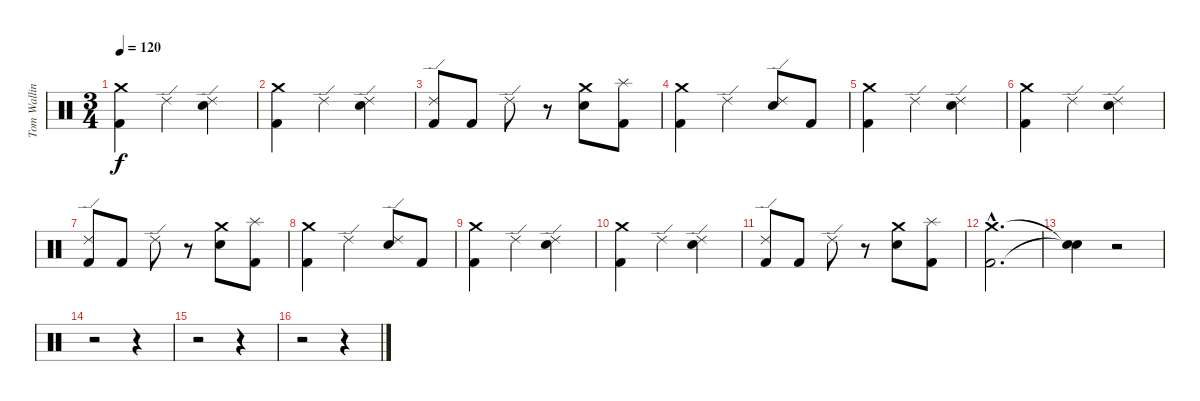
\track ("Tom Walling (Drums)" "Tom Wallin") {instrument percussion}
\staff {score}
\articulation defaults
\ts (3 4)
\tempo 120
\clef neutral
\ks c
("Kick (hit) 2" "Crash medium (hit)").4{dy f} "Ride (edge) 2".4 ("Electric Snare (hit)" "Ride (edge) 2").4 |
("Crash medium (hit)" "Kick (hit) 2").4 "Ride (edge) 2".4 ("Ride (edge) 2" "Electric Snare (hit)").4 |
("Ride (edge) 2" "Kick (hit) 2").8 "Kick (hit) 2".8 "Ride (edge) 2".8 r.8 ("Crash medium (hit)" "Electric Snare (hit)").8 ("Splash (hit)" "Kick (hit) 2").8 |
("Crash medium (hit)" "Kick (hit) 2").4 "Ride (edge) 2".4 ("Ride (edge) 2" "Electric Snare (hit)").8 "Kick (hit) 2".8 |
("Kick (hit) 2" "Crash medium (hit)").4 "Ride (edge) 2".4 ("Electric Snare (hit)" "Ride (edge) 2").4 |
("Crash medium (hit)" "Kick (hit) 2").4 "Ride (edge) 2".4 ("Ride (edge) 2" "Electric Snare (hit)").4 |
("Ride (edge) 2" "Kick (hit) 2").8 "Kick (hit) 2".8 "Ride (edge) 2".8 r.8 ("Crash medium (hit)" "Electric Snare (hit)").8 ("Splash (hit)" "Kick (hit) 2").8 |
("Crash medium (hit)" "Kick (hit) 2").4 "Ride (edge) 2".4 ("Ride (edge) 2" "Electric Snare (hit)").8 "Kick (hit) 2".8 |
("Kick (hit) 2" "Crash medium (hit)").4 "Ride (edge) 2".4 ("Electric Snare (hit)" "Ride (edge) 2").4 |
("Crash medium (hit)" "Kick (hit) 2").4 "Ride (edge) 2".4 ("Ride (edge) 2" "Electric Snare (hit)").4 |
("Ride (edge) 2" "Kick (hit) 2").8 "Kick (hit) 2".8 "Ride (edge) 2".8 r.8 ("Crash medium (hit)" "Electric Snare (hit)").8 ("Splash (hit)" "Kick (hit) 2").8 |
("Crash medium (hit)"{hac} "Kick (hit) 2"{hac}).2{d} |
("Snare (hit)"{t} "Snare (hit)"{t}).4 r.2 |
r.2 r.4 |
r.2 r.4 |
r.2 r.4
